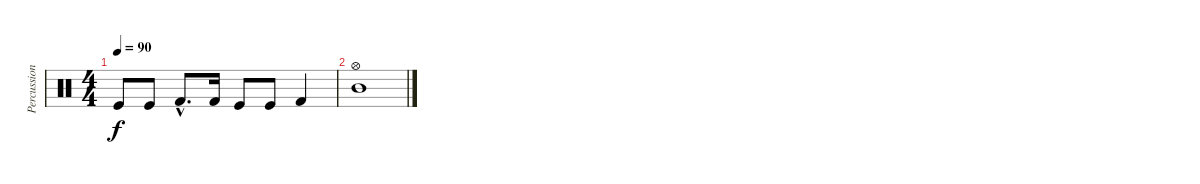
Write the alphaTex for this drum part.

\track ("Percussions" "Percussion") {instrument percussion}
\staff {score}
\articulation defaults
\ts (4 4)
\tempo 90
\clef neutral
\ks c "Kick (hit)".8{dy f} "Kick (hit)".8 "Kick (hit) 2"{hac}.8{d} "Kick (hit) 2".16 "Kick (hit)".8 "Kick (hit)".8 "Kick (hit) 2".4
|
("Mid Tom (hit)" "Hi-Hat (open)").1
